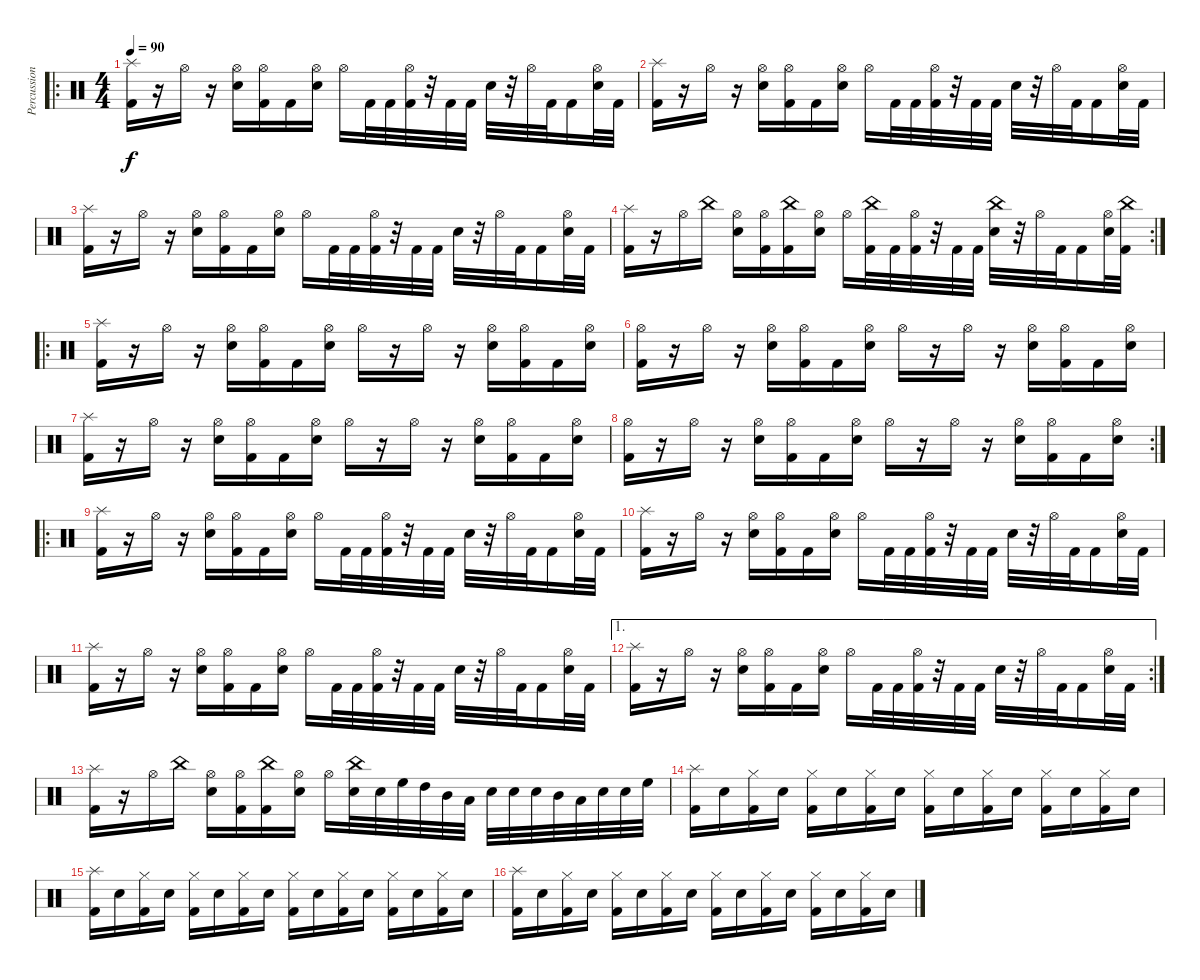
\track ("Percussion" "Percussion") {instrument percussion}
\staff {score}
\articulation defaults
\ro
\ts (4 4)
\tempo 90
\clef neutral
\ks c
("Kick (hit) 2" "Splash (hit)").16{dy f} r.16 "Hi-Hat (open)".16 r.16 ("Snare (hit) 2" "Hi-Hat (open)").16 ("Kick (hit) 2" "Hi-Hat (open)").16 "Kick (hit) 2".16 ("Snare (hit) 2" "Hi-Hat (open)").16 "Hi-Hat (open)".16 "Kick (hit) 2".32 "Kick (hit) 2".32 ("Kick (hit) 2" "Hi-Hat (open)").32 r.32 "Kick (hit) 2".32 "Kick (hit) 2".32 "Snare (hit) 2".32 r.32 "Hi-Hat (open)".32 "Kick (hit) 2".32 "Kick (hit) 2".16 ("Snare (hit) 2" "Hi-Hat (open)").32 "Kick (hit) 2".32 |
("Kick (hit) 2" "Splash (hit)").16 r.16 "Hi-Hat (open)".16 r.16 ("Snare (hit) 2" "Hi-Hat (open)").16 ("Kick (hit) 2" "Hi-Hat (open)").16 "Kick (hit) 2".16 ("Snare (hit) 2" "Hi-Hat (open)").16 "Hi-Hat (open)".16 "Kick (hit) 2".32 "Kick (hit) 2".32 ("Kick (hit) 2" "Hi-Hat (open)").32 r.32 "Kick (hit) 2".32 "Kick (hit) 2".32 "Snare (hit) 2".32 r.32 "Hi-Hat (open)".32 "Kick (hit) 2".32 "Kick (hit) 2".16 ("Snare (hit) 2" "Hi-Hat (open)").32 "Kick (hit) 2".32 |
("Kick (hit) 2" "Splash (hit)").16 r.16 "Hi-Hat (open)".16 r.16 ("Snare (hit) 2" "Hi-Hat (open)").16 ("Kick (hit) 2" "Hi-Hat (open)").16 "Kick (hit) 2".16 ("Snare (hit) 2" "Hi-Hat (open)").16 "Hi-Hat (open)".16 "Kick (hit) 2".32 "Kick (hit) 2".32 ("Kick (hit) 2" "Hi-Hat (open)").32 r.32 "Kick (hit) 2".32 "Kick (hit) 2".32 "Snare (hit) 2".32 r.32 "Hi-Hat (open)".32 "Kick (hit) 2".32 "Kick (hit) 2".16 ("Snare (hit) 2" "Hi-Hat (open)").32 "Kick (hit) 2".32 |
\rc 2
("Kick (hit) 2" "Splash (hit)").16 r.16 "Hi-Hat (open)".16 "China (hit)".16 ("Snare (hit) 2" "Hi-Hat (open)").16 ("Kick (hit) 2" "Hi-Hat (open)").16 ("Kick (hit) 2" "China (hit)").16 ("Snare (hit) 2" "Hi-Hat (open)").16 "Hi-Hat (open)".16 ("Kick (hit) 2" "China (hit)").32 "Kick (hit) 2".32 ("Kick (hit) 2" "Hi-Hat (open)").32 r.32 "Kick (hit) 2".32 "Kick (hit) 2".32 ("Snare (hit) 2" "China (hit)").32 r.32 "Hi-Hat (open)".32 "Kick (hit) 2".32 "Kick (hit) 2".16 ("Snare (hit) 2" "Hi-Hat (open)").32 ("Kick (hit) 2" "China (hit)").32 |
\ro
("Kick (hit) 2" "Splash (hit)").16 r.16 "Hi-Hat (open)".16 r.16 ("Snare (hit) 2" "Hi-Hat (open)").16 ("Kick (hit) 2" "Hi-Hat (open)").16 "Kick (hit) 2".16 ("Snare (hit) 2" "Hi-Hat (open)").16 "Hi-Hat (open)".16 r.16 "Hi-Hat (open)".16 r.16 ("Snare (hit) 2" "Hi-Hat (open)").16 ("Kick (hit) 2" "Hi-Hat (open)").16 "Kick (hit) 2".16 ("Snare (hit) 2" "Hi-Hat (open)").16 |
("Kick (hit) 2" "Hi-Hat (open)").16 r.16 "Hi-Hat (open)".16 r.16 ("Snare (hit) 2" "Hi-Hat (open)").16 ("Kick (hit) 2" "Hi-Hat (open)").16 "Kick (hit) 2".16 ("Snare (hit) 2" "Hi-Hat (open)").16 "Hi-Hat (open)".16 r.16 "Hi-Hat (open)".16 r.16 ("Snare (hit) 2" "Hi-Hat (open)").16 ("Kick (hit) 2" "Hi-Hat (open)").16 "Kick (hit) 2".16 ("Snare (hit) 2" "Hi-Hat (open)").16 |
("Kick (hit) 2" "Splash (hit)").16 r.16 "Hi-Hat (open)".16 r.16 ("Snare (hit) 2" "Hi-Hat (open)").16 ("Kick (hit) 2" "Hi-Hat (open)").16 "Kick (hit) 2".16 ("Snare (hit) 2" "Hi-Hat (open)").16 "Hi-Hat (open)".16 r.16 "Hi-Hat (open)".16 r.16 ("Snare (hit) 2" "Hi-Hat (open)").16 ("Kick (hit) 2" "Hi-Hat (open)").16 "Kick (hit) 2".16 ("Snare (hit) 2" "Hi-Hat (open)").16 |
\rc 2
("Kick (hit) 2" "Hi-Hat (open)").16 r.16 "Hi-Hat (open)".16 r.16 ("Snare (hit) 2" "Hi-Hat (open)").16 ("Kick (hit) 2" "Hi-Hat (open)").16 "Kick (hit) 2".16 ("Snare (hit) 2" "Hi-Hat (open)").16 "Hi-Hat (open)".16 r.16 "Hi-Hat (open)".16 r.16 ("Snare (hit) 2" "Hi-Hat (open)").16 ("Kick (hit) 2" "Hi-Hat (open)").16 "Kick (hit) 2".16 ("Snare (hit) 2" "Hi-Hat (open)").16 |
\ro
("Kick (hit) 2" "Splash (hit)").16 r.16 "Hi-Hat (open)".16 r.16 ("Snare (hit) 2" "Hi-Hat (open)").16 ("Kick (hit) 2" "Hi-Hat (open)").16 "Kick (hit) 2".16 ("Snare (hit) 2" "Hi-Hat (open)").16 "Hi-Hat (open)".16 "Kick (hit) 2".32 "Kick (hit) 2".32 ("Kick (hit) 2" "Hi-Hat (open)").32 r.32 "Kick (hit) 2".32 "Kick (hit) 2".32 "Snare (hit) 2".32 r.32 "Hi-Hat (open)".32 "Kick (hit) 2".32 "Kick (hit) 2".16 ("Snare (hit) 2" "Hi-Hat (open)").32 "Kick (hit) 2".32 |
("Kick (hit) 2" "Splash (hit)").16 r.16 "Hi-Hat (open)".16 r.16 ("Snare (hit) 2" "Hi-Hat (open)").16 ("Kick (hit) 2" "Hi-Hat (open)").16 "Kick (hit) 2".16 ("Snare (hit) 2" "Hi-Hat (open)").16 "Hi-Hat (open)".16 "Kick (hit) 2".32 "Kick (hit) 2".32 ("Kick (hit) 2" "Hi-Hat (open)").32 r.32 "Kick (hit) 2".32 "Kick (hit) 2".32 "Snare (hit) 2".32 r.32 "Hi-Hat (open)".32 "Kick (hit) 2".32 "Kick (hit) 2".16 ("Snare (hit) 2" "Hi-Hat (open)").32 "Kick (hit) 2".32 |
("Kick (hit) 2" "Splash (hit)").16 r.16 "Hi-Hat (open)".16 r.16 ("Snare (hit) 2" "Hi-Hat (open)").16 ("Kick (hit) 2" "Hi-Hat (open)").16 "Kick (hit) 2".16 ("Snare (hit) 2" "Hi-Hat (open)").16 "Hi-Hat (open)".16 "Kick (hit) 2".32 "Kick (hit) 2".32 ("Kick (hit) 2" "Hi-Hat (open)").32 r.32 "Kick (hit) 2".32 "Kick (hit) 2".32 "Snare (hit) 2".32 r.32 "Hi-Hat (open)".32 "Kick (hit) 2".32 "Kick (hit) 2".16 ("Snare (hit) 2" "Hi-Hat (open)").32 "Kick (hit) 2".32 |
\ae 1
\rc 2
("Kick (hit) 2" "Splash (hit)").16 r.16 "Hi-Hat (open)".16 r.16 ("Snare (hit) 2" "Hi-Hat (open)").16 ("Kick (hit) 2" "Hi-Hat (open)").16 "Kick (hit) 2".16 ("Snare (hit) 2" "Hi-Hat (open)").16 "Hi-Hat (open)".16 "Kick (hit) 2".32 "Kick (hit) 2".32 ("Kick (hit) 2" "Hi-Hat (open)").32 r.32 "Kick (hit) 2".32 "Kick (hit) 2".32 "Snare (hit) 2".32 r.32 "Hi-Hat (open)".32 "Kick (hit) 2".32 "Kick (hit) 2".16 ("Snare (hit) 2" "Hi-Hat (open)").32 "Kick (hit) 2".32 |
("Kick (hit) 2" "Splash (hit)").16 r.16 "Hi-Hat (open)".16 "China (hit)".16 ("Snare (hit) 2" "Hi-Hat (open)").16 ("Kick (hit) 2" "Hi-Hat (open)").16 ("Kick (hit) 2" "China (hit)").16 ("Snare (hit) 2" "Hi-Hat (open)").16 "Hi-Hat (open)".16 ("Snare (hit) 2" "China (hit)").32 "Snare (hit) 2".32 "High Floor Tom (hit)".32 "High Tom (hit)".32 "Mid Tom (hit)".32 "Low Tom (hit)".32 "Snare (hit) 2".32 "Snare (hit) 2".32 "Snare (hit) 2".32 "Mid Tom (hit)".32 "Low Tom (hit)".32 "Snare (hit) 2".32 "Snare (hit) 2".32 "High Floor Tom (hit)".32 |
("Splash (hit)" "Kick (hit) 2").16 "Snare (hit) 2".16 ("Hi-Hat (closed)" "Kick (hit) 2").16 "Snare (hit) 2".16 ("Hi-Hat (closed)" "Kick (hit) 2").16 "Snare (hit) 2".16 ("Hi-Hat (closed)" "Kick (hit) 2").16 "Snare (hit) 2".16 ("Hi-Hat (closed)" "Kick (hit) 2").16 "Snare (hit) 2".16 ("Hi-Hat (closed)" "Kick (hit) 2").16 "Snare (hit) 2".16 ("Hi-Hat (closed)" "Kick (hit) 2").16 "Snare (hit) 2".16 ("Hi-Hat (closed)" "Kick (hit) 2").16 "Snare (hit) 2".16 |
("Splash (hit)" "Kick (hit) 2").16 "Snare (hit) 2".16 ("Hi-Hat (closed)" "Kick (hit) 2").16 "Snare (hit) 2".16 ("Hi-Hat (closed)" "Kick (hit) 2").16 "Snare (hit) 2".16 ("Hi-Hat (closed)" "Kick (hit) 2").16 "Snare (hit) 2".16 ("Hi-Hat (closed)" "Kick (hit) 2").16 "Snare (hit) 2".16 ("Hi-Hat (closed)" "Kick (hit) 2").16 "Snare (hit) 2".16 ("Hi-Hat (closed)" "Kick (hit) 2").16 "Snare (hit) 2".16 ("Hi-Hat (closed)" "Kick (hit) 2").16 "Snare (hit) 2".16 |
("Splash (hit)" "Kick (hit) 2").16 "Snare (hit) 2".16 ("Hi-Hat (closed)" "Kick (hit) 2").16 "Snare (hit) 2".16 ("Hi-Hat (closed)" "Kick (hit) 2").16 "Snare (hit) 2".16 ("Hi-Hat (closed)" "Kick (hit) 2").16 "Snare (hit) 2".16 ("Hi-Hat (closed)" "Kick (hit) 2").16 "Snare (hit) 2".16 ("Hi-Hat (closed)" "Kick (hit) 2").16 "Snare (hit) 2".16 ("Hi-Hat (closed)" "Kick (hit) 2").16 "Snare (hit) 2".16 ("Hi-Hat (closed)" "Kick (hit) 2").16 "Snare (hit) 2".16
